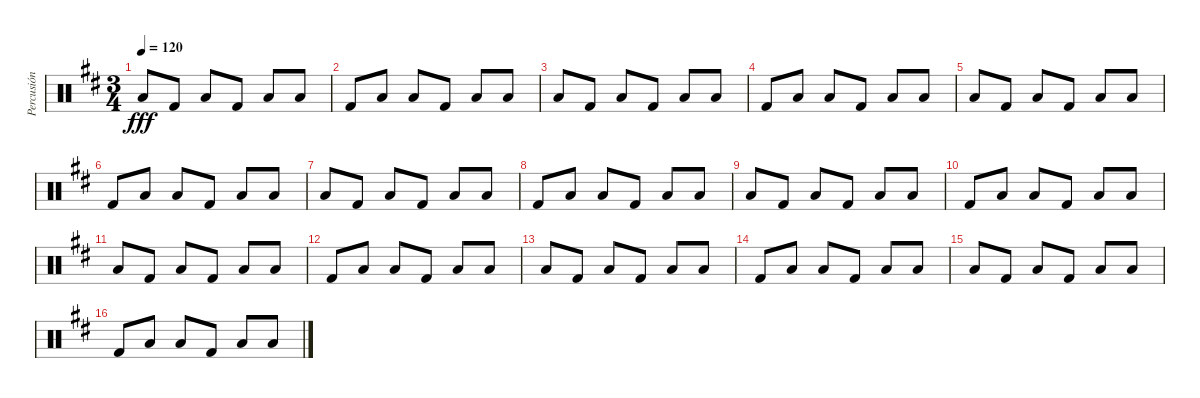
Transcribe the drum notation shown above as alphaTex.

\track ("Percusión" "Percusión") {instrument percussion}
\staff {score}
\articulation defaults
\ts (3 4)
\tempo 120
\clef neutral
\ks d "Low Tom (hit)".8{dy fff} "Kick (hit) 2".8 "Low Tom (hit)".8 "Kick (hit) 2".8 "Low Tom (hit)".8 "Low Tom (hit)".8
|
"Kick (hit) 2".8 "Low Tom (hit)".8 "Low Tom (hit)".8 "Kick (hit) 2".8 "Low Tom (hit)".8 "Low Tom (hit)".8 |
"Low Tom (hit)".8 "Kick (hit) 2".8 "Low Tom (hit)".8 "Kick (hit) 2".8 "Low Tom (hit)".8 "Low Tom (hit)".8 |
"Kick (hit) 2".8 "Low Tom (hit)".8 "Low Tom (hit)".8 "Kick (hit) 2".8 "Low Tom (hit)".8 "Low Tom (hit)".8 |
"Low Tom (hit)".8 "Kick (hit) 2".8 "Low Tom (hit)".8 "Kick (hit) 2".8 "Low Tom (hit)".8 "Low Tom (hit)".8 |
"Kick (hit) 2".8 "Low Tom (hit)".8 "Low Tom (hit)".8 "Kick (hit) 2".8 "Low Tom (hit)".8 "Low Tom (hit)".8 |
"Low Tom (hit)".8 "Kick (hit) 2".8 "Low Tom (hit)".8 "Kick (hit) 2".8 "Low Tom (hit)".8 "Low Tom (hit)".8 |
"Kick (hit) 2".8 "Low Tom (hit)".8 "Low Tom (hit)".8 "Kick (hit) 2".8 "Low Tom (hit)".8 "Low Tom (hit)".8 |
"Low Tom (hit)".8 "Kick (hit) 2".8 "Low Tom (hit)".8 "Kick (hit) 2".8 "Low Tom (hit)".8 "Low Tom (hit)".8 |
"Kick (hit) 2".8 "Low Tom (hit)".8 "Low Tom (hit)".8 "Kick (hit) 2".8 "Low Tom (hit)".8 "Low Tom (hit)".8 |
"Low Tom (hit)".8 "Kick (hit) 2".8 "Low Tom (hit)".8 "Kick (hit) 2".8 "Low Tom (hit)".8 "Low Tom (hit)".8 |
"Kick (hit) 2".8 "Low Tom (hit)".8 "Low Tom (hit)".8 "Kick (hit) 2".8 "Low Tom (hit)".8 "Low Tom (hit)".8 |
"Low Tom (hit)".8 "Kick (hit) 2".8 "Low Tom (hit)".8 "Kick (hit) 2".8 "Low Tom (hit)".8 "Low Tom (hit)".8 |
"Kick (hit) 2".8 "Low Tom (hit)".8 "Low Tom (hit)".8 "Kick (hit) 2".8 "Low Tom (hit)".8 "Low Tom (hit)".8 |
"Low Tom (hit)".8 "Kick (hit) 2".8 "Low Tom (hit)".8 "Kick (hit) 2".8 "Low Tom (hit)".8 "Low Tom (hit)".8 |
"Kick (hit) 2".8 "Low Tom (hit)".8 "Low Tom (hit)".8 "Kick (hit) 2".8 "Low Tom (hit)".8 "Low Tom (hit)".8
